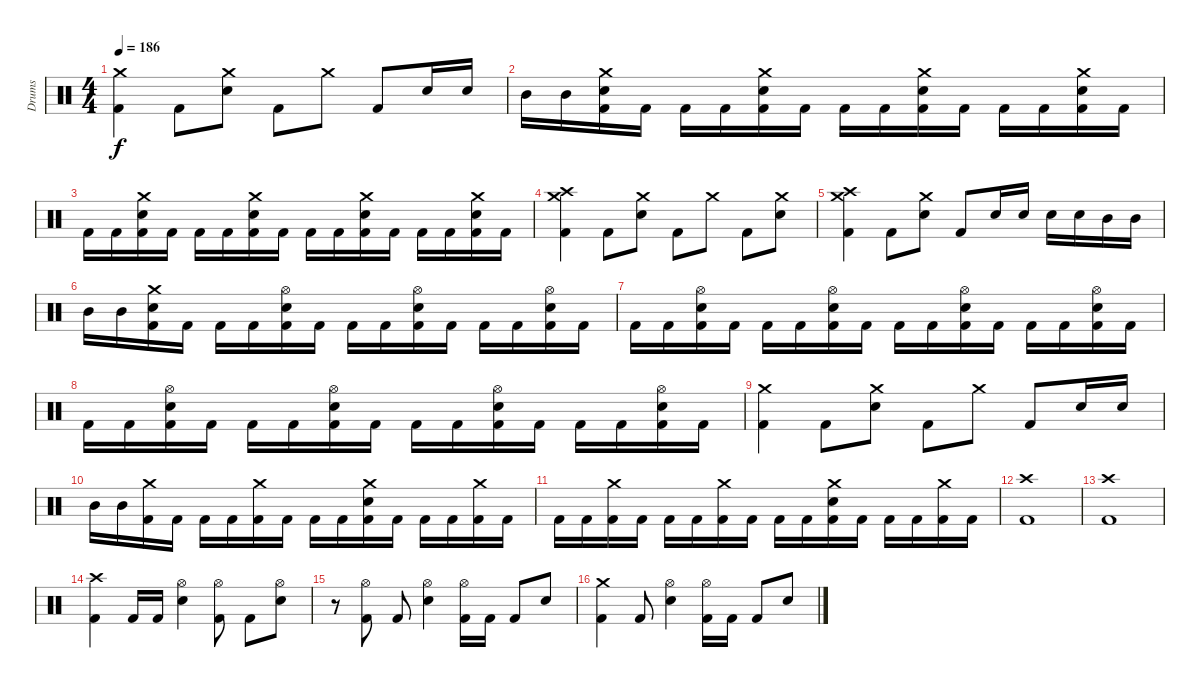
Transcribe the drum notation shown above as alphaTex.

\track ("Drums" "Drums") {instrument percussion bank 177}
\staff {score}
\articulation defaults
\ts (4 4)
\tempo 186
\clef neutral
\ks c
("Crash medium (hit)" "Kick (hit) 2").4{dy f} "Kick (hit) 2".8 ("Crash medium (hit)" "Snare (hit) 2").8 "Kick (hit) 2".8 "Crash medium (hit)".8 "Kick (hit) 2".8 "Snare (hit) 2".16 "Snare (hit) 2".16 |
"Mid Tom (hit)".16 "Mid Tom (hit)".16 ("Crash medium (hit)" "Snare (hit) 2" "Kick (hit) 2").16 "Kick (hit) 2".16 "Kick (hit) 2".16 "Kick (hit) 2".16 ("Crash medium (hit)" "Snare (hit) 2" "Kick (hit) 2").16 "Kick (hit) 2".16 "Kick (hit) 2".16 "Kick (hit) 2".16 ("Crash medium (hit)" "Snare (hit) 2" "Kick (hit) 2").16 "Kick (hit) 2".16 "Kick (hit) 2".16 "Kick (hit) 2".16 ("Crash medium (hit)" "Snare (hit) 2" "Kick (hit) 2").16 "Kick (hit) 2".16 |
"Kick (hit) 2".16 "Kick (hit) 2".16 ("Crash medium (hit)" "Snare (hit) 2" "Kick (hit) 2").16 "Kick (hit) 2".16 "Kick (hit) 2".16 "Kick (hit) 2".16 ("Crash medium (hit)" "Snare (hit) 2" "Kick (hit) 2").16 "Kick (hit) 2".16 "Kick (hit) 2".16 "Kick (hit) 2".16 ("Crash medium (hit)" "Snare (hit) 2" "Kick (hit) 2").16 "Kick (hit) 2".16 "Kick (hit) 2".16 "Kick (hit) 2".16 ("Crash medium (hit)" "Snare (hit) 2" "Kick (hit) 2").16 "Kick (hit) 2".16 |
("Crash high (hit)" "Crash medium (hit)" "Kick (hit) 2").4 "Kick (hit) 2".8 ("Crash medium (hit)" "Snare (hit) 2").8 "Kick (hit) 2".8 "Crash medium (hit)".8 "Kick (hit) 2".8 ("Crash medium (hit)" "Snare (hit) 2").8 |
("Crash high (hit)" "Crash medium (hit)" "Kick (hit) 2").4 "Kick (hit) 2".8 ("Crash medium (hit)" "Snare (hit) 2").8 "Kick (hit) 2".8 "Snare (hit) 2".16 "Snare (hit) 2".16 "Snare (hit) 2".16 "Snare (hit) 2".16 "Mid Tom (hit)".16 "Mid Tom (hit)".16 |
"Mid Tom (hit)".16 "Mid Tom (hit)".16 ("Crash medium (hit)" "Snare (hit) 2" "Kick (hit) 2").16 "Kick (hit) 2".16 "Kick (hit) 2".16 "Kick (hit) 2".16 ("Hi-Hat (open)" "Snare (hit) 2" "Kick (hit) 2").16 "Kick (hit) 2".16 "Kick (hit) 2".16 "Kick (hit) 2".16 ("Hi-Hat (open)" "Snare (hit) 2" "Kick (hit) 2").16 "Kick (hit) 2".16 "Kick (hit) 2".16 "Kick (hit) 2".16 ("Hi-Hat (open)" "Snare (hit) 2" "Kick (hit) 2").16 "Kick (hit) 2".16 |
"Kick (hit) 2".16 "Kick (hit) 2".16 ("Hi-Hat (open)" "Snare (hit) 2" "Kick (hit) 2").16 "Kick (hit) 2".16 "Kick (hit) 2".16 "Kick (hit) 2".16 ("Hi-Hat (open)" "Snare (hit) 2" "Kick (hit) 2").16 "Kick (hit) 2".16 "Kick (hit) 2".16 "Kick (hit) 2".16 ("Hi-Hat (open)" "Snare (hit) 2" "Kick (hit) 2").16 "Kick (hit) 2".16 "Kick (hit) 2".16 "Kick (hit) 2".16 ("Hi-Hat (open)" "Snare (hit) 2" "Kick (hit) 2").16 "Kick (hit) 2".16 |
"Kick (hit) 2".16 "Kick (hit) 2".16 ("Hi-Hat (open)" "Snare (hit) 2" "Kick (hit) 2").16 "Kick (hit) 2".16 "Kick (hit) 2".16 "Kick (hit) 2".16 ("Hi-Hat (open)" "Snare (hit) 2" "Kick (hit) 2").16 "Kick (hit) 2".16 "Kick (hit) 2".16 "Kick (hit) 2".16 ("Hi-Hat (open)" "Snare (hit) 2" "Kick (hit) 2").16 "Kick (hit) 2".16 "Kick (hit) 2".16 "Kick (hit) 2".16 ("Hi-Hat (open)" "Snare (hit) 2" "Kick (hit) 2").16 "Kick (hit) 2".16 |
("Crash medium (hit)" "Kick (hit) 2").4 "Kick (hit) 2".8 ("Crash medium (hit)" "Snare (hit) 2").8 "Kick (hit) 2".8 "Crash medium (hit)".8 "Kick (hit) 2".8 "Snare (hit) 2".16 "Snare (hit) 2".16 |
"Mid Tom (hit)".16 "Mid Tom (hit)".16 ("Crash medium (hit)" "Kick (hit) 2").16 "Kick (hit) 2".16 "Kick (hit) 2".16 "Kick (hit) 2".16 ("Crash medium (hit)" "Kick (hit) 2").16 "Kick (hit) 2".16 "Kick (hit) 2".16 "Kick (hit) 2".16 ("Crash medium (hit)" "Snare (hit) 2" "Kick (hit) 2").16 "Kick (hit) 2".16 "Kick (hit) 2".16 "Kick (hit) 2".16 ("Crash medium (hit)" "Kick (hit) 2").16 "Kick (hit) 2".16 |
"Kick (hit) 2".16 "Kick (hit) 2".16 ("Crash medium (hit)" "Kick (hit) 2").16 "Kick (hit) 2".16 "Kick (hit) 2".16 "Kick (hit) 2".16 ("Crash medium (hit)" "Kick (hit) 2").16 "Kick (hit) 2".16 "Kick (hit) 2".16 "Kick (hit) 2".16 ("Crash medium (hit)" "Snare (hit) 2" "Kick (hit) 2").16 "Kick (hit) 2".16 "Kick (hit) 2".16 "Kick (hit) 2".16 ("Crash medium (hit)" "Kick (hit) 2").16 "Kick (hit) 2".16 |
("Crash high (hit)" "Kick (hit) 2").1 |
("Crash high (hit)" "Kick (hit) 2").1 |
("Crash high (hit)" "Kick (hit) 2").4 "Kick (hit) 2".16 "Kick (hit) 2".16 ("Hi-Hat (open)" "Snare (hit) 2").4 ("Hi-Hat (open)" "Kick (hit) 2").8 "Kick (hit) 2".8 ("Hi-Hat (open)" "Snare (hit) 2").8 |
r.8 ("Hi-Hat (open)" "Kick (hit) 2").8 "Kick (hit) 2".8 ("Hi-Hat (open)" "Snare (hit) 2").4 ("Hi-Hat (open)" "Kick (hit) 2").16 "Kick (hit) 2".16 "Kick (hit) 2".8 "Snare (hit) 2".8 |
("Crash medium (hit)" "Kick (hit) 2").4 "Kick (hit) 2".8 ("Hi-Hat (open)" "Snare (hit) 2").4 ("Hi-Hat (open)" "Kick (hit) 2").16 "Kick (hit) 2".16 "Kick (hit) 2".8 "Snare (hit) 2".8
